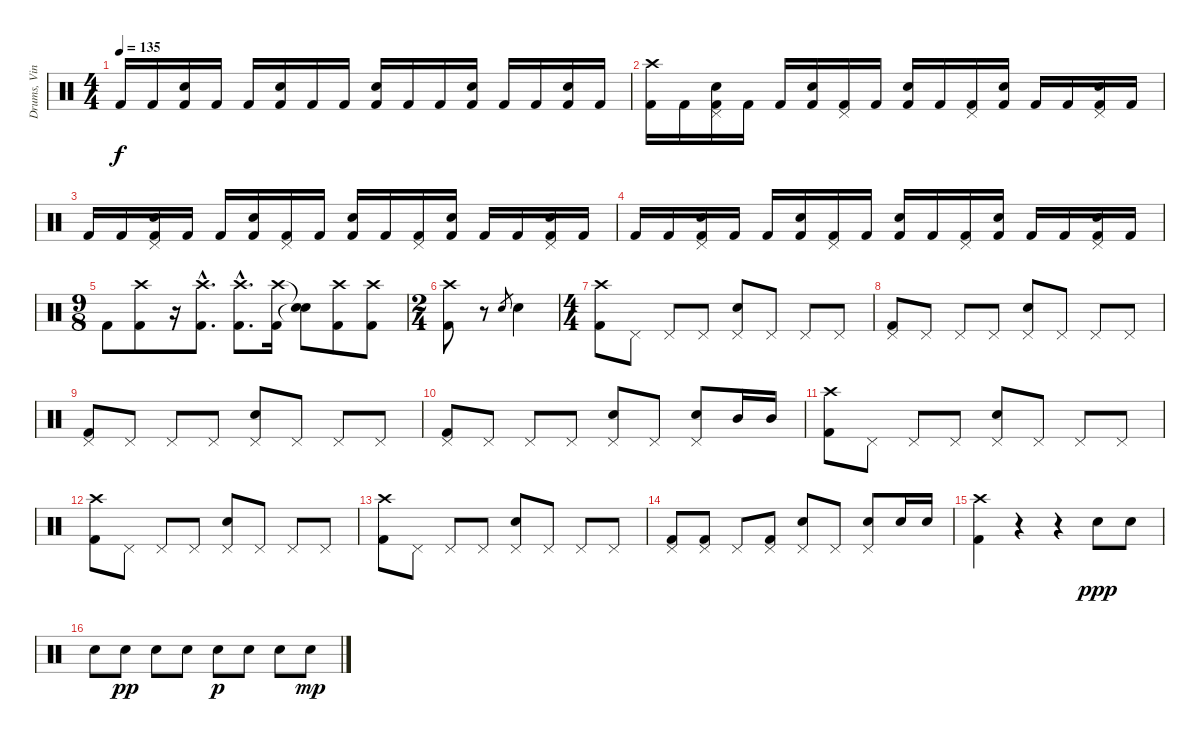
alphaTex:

\track ("Drums, Vinnie" "Drums, Vin") {instrument percussion}
\staff {score}
\articulation defaults
\ts (4 4)
\tempo 135
\clef neutral
\ks c "Kick (hit) 2".16{dy f} "Kick (hit) 2".16
("Electric Snare (hit)" "Kick (hit) 2").16 "Kick (hit) 2".16 "Kick (hit) 2".16 ("Electric Snare (hit)" "Kick (hit) 2").16 "Kick (hit) 2".16 "Kick (hit) 2".16 ("Electric Snare (hit)" "Kick (hit) 2").16 "Kick (hit) 2".16 "Kick (hit) 2".16 ("Electric Snare (hit)" "Kick (hit) 2").16 "Kick (hit) 2".16 "Kick (hit) 2".16 ("Electric Snare (hit)" "Kick (hit) 2").16 "Kick (hit) 2".16 |
("Crash high (hit)" "Kick (hit) 2").16 "Kick (hit) 2".16 ("Pedal Hi-Hat (hit)" "Electric Snare (hit)" "Kick (hit) 2").16 "Kick (hit) 2".16 "Kick (hit) 2".16 ("Electric Snare (hit)" "Kick (hit) 2").16 ("Pedal Hi-Hat (hit)" "Kick (hit) 2").16 "Kick (hit) 2".16 ("Electric Snare (hit)" "Kick (hit) 2").16 "Kick (hit) 2".16 ("Pedal Hi-Hat (hit)" "Kick (hit) 2").16 ("Electric Snare (hit)" "Kick (hit) 2").16 "Kick (hit) 2".16 "Kick (hit) 2".16 ("Pedal Hi-Hat (hit)" "Electric Snare (hit)" "Kick (hit) 2").16 "Kick (hit) 2".16 |
"Kick (hit) 2".16 "Kick (hit) 2".16 ("Pedal Hi-Hat (hit)" "Electric Snare (hit)" "Kick (hit) 2").16 "Kick (hit) 2".16 "Kick (hit) 2".16 ("Electric Snare (hit)" "Kick (hit) 2").16 ("Pedal Hi-Hat (hit)" "Kick (hit) 2").16 "Kick (hit) 2".16 ("Electric Snare (hit)" "Kick (hit) 2").16 "Kick (hit) 2".16 ("Pedal Hi-Hat (hit)" "Kick (hit) 2").16 ("Electric Snare (hit)" "Kick (hit) 2").16 "Kick (hit) 2".16 "Kick (hit) 2".16 ("Pedal Hi-Hat (hit)" "Electric Snare (hit)" "Kick (hit) 2").16 "Kick (hit) 2".16 |
"Kick (hit) 2".16 "Kick (hit) 2".16 ("Pedal Hi-Hat (hit)" "Electric Snare (hit)" "Kick (hit) 2").16 "Kick (hit) 2".16 "Kick (hit) 2".16 ("Electric Snare (hit)" "Kick (hit) 2").16 ("Pedal Hi-Hat (hit)" "Kick (hit) 2").16 "Kick (hit) 2".16 ("Electric Snare (hit)" "Kick (hit) 2").16 "Kick (hit) 2".16 ("Pedal Hi-Hat (hit)" "Kick (hit) 2").16 ("Electric Snare (hit)" "Kick (hit) 2").16 "Kick (hit) 2".16 "Kick (hit) 2".16 ("Pedal Hi-Hat (hit)" "Electric Snare (hit)" "Kick (hit) 2").16 "Kick (hit) 2".16 |
\ts (9 8)
"Kick (hit) 2".8 ("Crash high (hit)" "Kick (hit) 2").8 r.16 ("Crash high (hit)"{hac} "Kick (hit) 2"{hac}).8{d} ("Crash high (hit)"{hac} "Kick (hit) 2"{hac}).8{d} ("Crash high (hit)" "Kick (hit) 2").16 ("Snare (hit)"{t} "Snare (hit)"{t}).8 ("Crash high (hit)" "Kick (hit) 2").8 ("Crash high (hit)" "Kick (hit) 2").8 |
\ts (2 4)
("Crash high (hit)" "Kick (hit) 2").8 r.8 "Electric Snare (hit)".8{gr} "Electric Snare (hit)".4 |
\ts (4 4)
("Crash high (hit)" "Kick (hit) 2").8 "Pedal Hi-Hat (hit)".8 "Pedal Hi-Hat (hit)".8 "Pedal Hi-Hat (hit)".8 ("Pedal Hi-Hat (hit)" "Electric Snare (hit)").8 "Pedal Hi-Hat (hit)".8 "Pedal Hi-Hat (hit)".8 "Pedal Hi-Hat (hit)".8 |
("Pedal Hi-Hat (hit)" "Kick (hit) 2").8 "Pedal Hi-Hat (hit)".8 "Pedal Hi-Hat (hit)".8 "Pedal Hi-Hat (hit)".8 ("Pedal Hi-Hat (hit)" "Electric Snare (hit)").8 "Pedal Hi-Hat (hit)".8 "Pedal Hi-Hat (hit)".8 "Pedal Hi-Hat (hit)".8 |
("Pedal Hi-Hat (hit)" "Kick (hit) 2").8 "Pedal Hi-Hat (hit)".8 "Pedal Hi-Hat (hit)".8 "Pedal Hi-Hat (hit)".8 ("Pedal Hi-Hat (hit)" "Electric Snare (hit)").8 "Pedal Hi-Hat (hit)".8 "Pedal Hi-Hat (hit)".8 "Pedal Hi-Hat (hit)".8 |
("Pedal Hi-Hat (hit)" "Kick (hit) 2").8 "Pedal Hi-Hat (hit)".8 "Pedal Hi-Hat (hit)".8 "Pedal Hi-Hat (hit)".8 ("Pedal Hi-Hat (hit)" "Electric Snare (hit)").8 "Pedal Hi-Hat (hit)".8 ("Pedal Hi-Hat (hit)" "Electric Snare (hit)").8 "Mid Tom (hit)".16 "Mid Tom (hit)".16 |
("Crash high (hit)" "Kick (hit) 2").8 "Pedal Hi-Hat (hit)".8 "Pedal Hi-Hat (hit)".8 "Pedal Hi-Hat (hit)".8 ("Pedal Hi-Hat (hit)" "Electric Snare (hit)").8 "Pedal Hi-Hat (hit)".8 "Pedal Hi-Hat (hit)".8 "Pedal Hi-Hat (hit)".8 |
("Crash high (hit)" "Kick (hit) 2").8 "Pedal Hi-Hat (hit)".8 "Pedal Hi-Hat (hit)".8 "Pedal Hi-Hat (hit)".8 ("Pedal Hi-Hat (hit)" "Electric Snare (hit)").8 "Pedal Hi-Hat (hit)".8 "Pedal Hi-Hat (hit)".8 "Pedal Hi-Hat (hit)".8 |
("Crash high (hit)" "Kick (hit) 2").8 "Pedal Hi-Hat (hit)".8 "Pedal Hi-Hat (hit)".8 "Pedal Hi-Hat (hit)".8 ("Pedal Hi-Hat (hit)" "Electric Snare (hit)").8 "Pedal Hi-Hat (hit)".8 "Pedal Hi-Hat (hit)".8 "Pedal Hi-Hat (hit)".8 |
("Pedal Hi-Hat (hit)" "Kick (hit) 2").8 ("Pedal Hi-Hat (hit)" "Kick (hit) 2").8 "Pedal Hi-Hat (hit)".8 ("Pedal Hi-Hat (hit)" "Kick (hit) 2").8 ("Pedal Hi-Hat (hit)" "Electric Snare (hit)").8 "Pedal Hi-Hat (hit)".8 ("Pedal Hi-Hat (hit)" "Electric Snare (hit)").8 "Electric Snare (hit)".16 "Electric Snare (hit)".16 |
("Crash high (hit)" "Kick (hit) 2").4 r.4 r.4 "Electric Snare (hit)".8{dy ppp} "Electric Snare (hit)".8 |
"Electric Snare (hit)".8 "Electric Snare (hit)".8{dy pp} "Electric Snare (hit)".8 "Electric Snare (hit)".8 "Electric Snare (hit)".8{dy p} "Electric Snare (hit)".8 "Electric Snare (hit)".8 "Electric Snare (hit)".8{dy mp}
